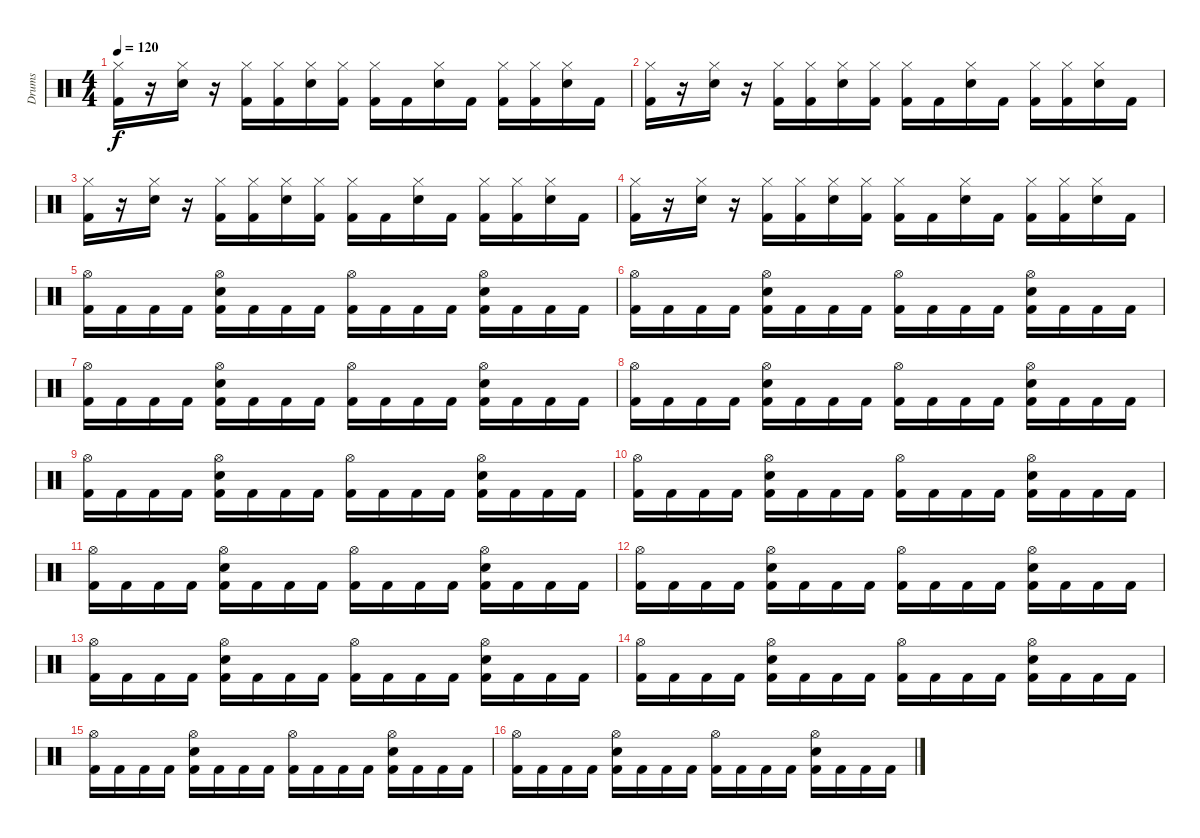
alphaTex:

\track ("Drums" "Drums") {instrument percussion}
\staff {score}
\articulation defaults
\ts (4 4)
\tempo 120
\clef neutral
\ks c
("Hi-Hat (closed)" "Kick (hit) 2").16{dy f} r.16 ("Hi-Hat (closed)" "Snare (hit) 2").16 r.16 ("Hi-Hat (closed)" "Kick (hit) 2").16 ("Hi-Hat (closed)" "Kick (hit) 2").16 ("Hi-Hat (closed)" "Snare (hit) 2").16 ("Hi-Hat (closed)" "Kick (hit) 2").16 ("Hi-Hat (closed)" "Kick (hit) 2").16 "Kick (hit) 2".16 ("Hi-Hat (closed)" "Snare (hit) 2").16 "Kick (hit) 2".16 ("Hi-Hat (closed)" "Kick (hit) 2").16 ("Hi-Hat (closed)" "Kick (hit) 2").16 ("Hi-Hat (closed)" "Snare (hit) 2").16 "Kick (hit) 2".16 |
("Hi-Hat (closed)" "Kick (hit) 2").16 r.16 ("Hi-Hat (closed)" "Snare (hit) 2").16 r.16 ("Hi-Hat (closed)" "Kick (hit) 2").16 ("Hi-Hat (closed)" "Kick (hit) 2").16 ("Hi-Hat (closed)" "Snare (hit) 2").16 ("Hi-Hat (closed)" "Kick (hit) 2").16 ("Hi-Hat (closed)" "Kick (hit) 2").16 "Kick (hit) 2".16 ("Hi-Hat (closed)" "Snare (hit) 2").16 "Kick (hit) 2".16 ("Hi-Hat (closed)" "Kick (hit) 2").16 ("Hi-Hat (closed)" "Kick (hit) 2").16 ("Hi-Hat (closed)" "Snare (hit) 2").16 "Kick (hit) 2".16 |
("Hi-Hat (closed)" "Kick (hit) 2").16 r.16 ("Hi-Hat (closed)" "Snare (hit) 2").16 r.16 ("Hi-Hat (closed)" "Kick (hit) 2").16 ("Hi-Hat (closed)" "Kick (hit) 2").16 ("Hi-Hat (closed)" "Snare (hit) 2").16 ("Hi-Hat (closed)" "Kick (hit) 2").16 ("Hi-Hat (closed)" "Kick (hit) 2").16 "Kick (hit) 2".16 ("Hi-Hat (closed)" "Snare (hit) 2").16 "Kick (hit) 2".16 ("Hi-Hat (closed)" "Kick (hit) 2").16 ("Hi-Hat (closed)" "Kick (hit) 2").16 ("Hi-Hat (closed)" "Snare (hit) 2").16 "Kick (hit) 2".16 |
("Hi-Hat (closed)" "Kick (hit) 2").16 r.16 ("Hi-Hat (closed)" "Snare (hit) 2").16 r.16 ("Hi-Hat (closed)" "Kick (hit) 2").16 ("Hi-Hat (closed)" "Kick (hit) 2").16 ("Hi-Hat (closed)" "Snare (hit) 2").16 ("Hi-Hat (closed)" "Kick (hit) 2").16 ("Hi-Hat (closed)" "Kick (hit) 2").16 "Kick (hit) 2".16 ("Hi-Hat (closed)" "Snare (hit) 2").16 "Kick (hit) 2".16 ("Hi-Hat (closed)" "Kick (hit) 2").16 ("Hi-Hat (closed)" "Kick (hit) 2").16 ("Hi-Hat (closed)" "Snare (hit) 2").16 "Kick (hit) 2".16 |
("Hi-Hat (open)" "Kick (hit) 2").16 "Kick (hit) 2".16 "Kick (hit) 2".16 "Kick (hit) 2".16 ("Hi-Hat (open)" "Snare (hit) 2" "Kick (hit) 2").16 "Kick (hit) 2".16 "Kick (hit) 2".16 "Kick (hit) 2".16 ("Hi-Hat (open)" "Kick (hit) 2").16 "Kick (hit) 2".16 "Kick (hit) 2".16 "Kick (hit) 2".16 ("Hi-Hat (open)" "Snare (hit) 2" "Kick (hit) 2").16 "Kick (hit) 2".16 "Kick (hit) 2".16 "Kick (hit) 2".16 |
("Hi-Hat (open)" "Kick (hit) 2").16 "Kick (hit) 2".16 "Kick (hit) 2".16 "Kick (hit) 2".16 ("Hi-Hat (open)" "Snare (hit) 2" "Kick (hit) 2").16 "Kick (hit) 2".16 "Kick (hit) 2".16 "Kick (hit) 2".16 ("Hi-Hat (open)" "Kick (hit) 2").16 "Kick (hit) 2".16 "Kick (hit) 2".16 "Kick (hit) 2".16 ("Hi-Hat (open)" "Snare (hit) 2" "Kick (hit) 2").16 "Kick (hit) 2".16 "Kick (hit) 2".16 "Kick (hit) 2".16 |
("Hi-Hat (open)" "Kick (hit) 2").16 "Kick (hit) 2".16 "Kick (hit) 2".16 "Kick (hit) 2".16 ("Hi-Hat (open)" "Snare (hit) 2" "Kick (hit) 2").16 "Kick (hit) 2".16 "Kick (hit) 2".16 "Kick (hit) 2".16 ("Hi-Hat (open)" "Kick (hit) 2").16 "Kick (hit) 2".16 "Kick (hit) 2".16 "Kick (hit) 2".16 ("Hi-Hat (open)" "Snare (hit) 2" "Kick (hit) 2").16 "Kick (hit) 2".16 "Kick (hit) 2".16 "Kick (hit) 2".16 |
("Hi-Hat (open)" "Kick (hit) 2").16 "Kick (hit) 2".16 "Kick (hit) 2".16 "Kick (hit) 2".16 ("Hi-Hat (open)" "Snare (hit) 2" "Kick (hit) 2").16 "Kick (hit) 2".16 "Kick (hit) 2".16 "Kick (hit) 2".16 ("Hi-Hat (open)" "Kick (hit) 2").16 "Kick (hit) 2".16 "Kick (hit) 2".16 "Kick (hit) 2".16 ("Hi-Hat (open)" "Snare (hit) 2" "Kick (hit) 2").16 "Kick (hit) 2".16 "Kick (hit) 2".16 "Kick (hit) 2".16 |
("Hi-Hat (open)" "Kick (hit) 2").16 "Kick (hit) 2".16 "Kick (hit) 2".16 "Kick (hit) 2".16 ("Hi-Hat (open)" "Snare (hit) 2" "Kick (hit) 2").16 "Kick (hit) 2".16 "Kick (hit) 2".16 "Kick (hit) 2".16 ("Hi-Hat (open)" "Kick (hit) 2").16 "Kick (hit) 2".16 "Kick (hit) 2".16 "Kick (hit) 2".16 ("Hi-Hat (open)" "Snare (hit) 2" "Kick (hit) 2").16 "Kick (hit) 2".16 "Kick (hit) 2".16 "Kick (hit) 2".16 |
("Hi-Hat (open)" "Kick (hit) 2").16 "Kick (hit) 2".16 "Kick (hit) 2".16 "Kick (hit) 2".16 ("Hi-Hat (open)" "Snare (hit) 2" "Kick (hit) 2").16 "Kick (hit) 2".16 "Kick (hit) 2".16 "Kick (hit) 2".16 ("Hi-Hat (open)" "Kick (hit) 2").16 "Kick (hit) 2".16 "Kick (hit) 2".16 "Kick (hit) 2".16 ("Hi-Hat (open)" "Snare (hit) 2" "Kick (hit) 2").16 "Kick (hit) 2".16 "Kick (hit) 2".16 "Kick (hit) 2".16 |
("Hi-Hat (open)" "Kick (hit) 2").16 "Kick (hit) 2".16 "Kick (hit) 2".16 "Kick (hit) 2".16 ("Hi-Hat (open)" "Snare (hit) 2" "Kick (hit) 2").16 "Kick (hit) 2".16 "Kick (hit) 2".16 "Kick (hit) 2".16 ("Hi-Hat (open)" "Kick (hit) 2").16 "Kick (hit) 2".16 "Kick (hit) 2".16 "Kick (hit) 2".16 ("Hi-Hat (open)" "Snare (hit) 2" "Kick (hit) 2").16 "Kick (hit) 2".16 "Kick (hit) 2".16 "Kick (hit) 2".16 |
("Hi-Hat (open)" "Kick (hit) 2").16 "Kick (hit) 2".16 "Kick (hit) 2".16 "Kick (hit) 2".16 ("Hi-Hat (open)" "Snare (hit) 2" "Kick (hit) 2").16 "Kick (hit) 2".16 "Kick (hit) 2".16 "Kick (hit) 2".16 ("Hi-Hat (open)" "Kick (hit) 2").16 "Kick (hit) 2".16 "Kick (hit) 2".16 "Kick (hit) 2".16 ("Hi-Hat (open)" "Snare (hit) 2" "Kick (hit) 2").16 "Kick (hit) 2".16 "Kick (hit) 2".16 "Kick (hit) 2".16 |
("Hi-Hat (open)" "Kick (hit) 2").16 "Kick (hit) 2".16 "Kick (hit) 2".16 "Kick (hit) 2".16 ("Hi-Hat (open)" "Snare (hit) 2" "Kick (hit) 2").16 "Kick (hit) 2".16 "Kick (hit) 2".16 "Kick (hit) 2".16 ("Hi-Hat (open)" "Kick (hit) 2").16 "Kick (hit) 2".16 "Kick (hit) 2".16 "Kick (hit) 2".16 ("Hi-Hat (open)" "Snare (hit) 2" "Kick (hit) 2").16 "Kick (hit) 2".16 "Kick (hit) 2".16 "Kick (hit) 2".16 |
("Hi-Hat (open)" "Kick (hit) 2").16 "Kick (hit) 2".16 "Kick (hit) 2".16 "Kick (hit) 2".16 ("Hi-Hat (open)" "Snare (hit) 2" "Kick (hit) 2").16 "Kick (hit) 2".16 "Kick (hit) 2".16 "Kick (hit) 2".16 ("Hi-Hat (open)" "Kick (hit) 2").16 "Kick (hit) 2".16 "Kick (hit) 2".16 "Kick (hit) 2".16 ("Hi-Hat (open)" "Snare (hit) 2" "Kick (hit) 2").16 "Kick (hit) 2".16 "Kick (hit) 2".16 "Kick (hit) 2".16 |
("Hi-Hat (open)" "Kick (hit) 2").16 "Kick (hit) 2".16 "Kick (hit) 2".16 "Kick (hit) 2".16 ("Hi-Hat (open)" "Snare (hit) 2" "Kick (hit) 2").16 "Kick (hit) 2".16 "Kick (hit) 2".16 "Kick (hit) 2".16 ("Hi-Hat (open)" "Kick (hit) 2").16 "Kick (hit) 2".16 "Kick (hit) 2".16 "Kick (hit) 2".16 ("Hi-Hat (open)" "Snare (hit) 2" "Kick (hit) 2").16 "Kick (hit) 2".16 "Kick (hit) 2".16 "Kick (hit) 2".16 |
("Hi-Hat (open)" "Kick (hit) 2").16 "Kick (hit) 2".16 "Kick (hit) 2".16 "Kick (hit) 2".16 ("Hi-Hat (open)" "Snare (hit) 2" "Kick (hit) 2").16 "Kick (hit) 2".16 "Kick (hit) 2".16 "Kick (hit) 2".16 ("Hi-Hat (open)" "Kick (hit) 2").16 "Kick (hit) 2".16 "Kick (hit) 2".16 "Kick (hit) 2".16 ("Hi-Hat (open)" "Snare (hit) 2" "Kick (hit) 2").16 "Kick (hit) 2".16 "Kick (hit) 2".16 "Kick (hit) 2".16
